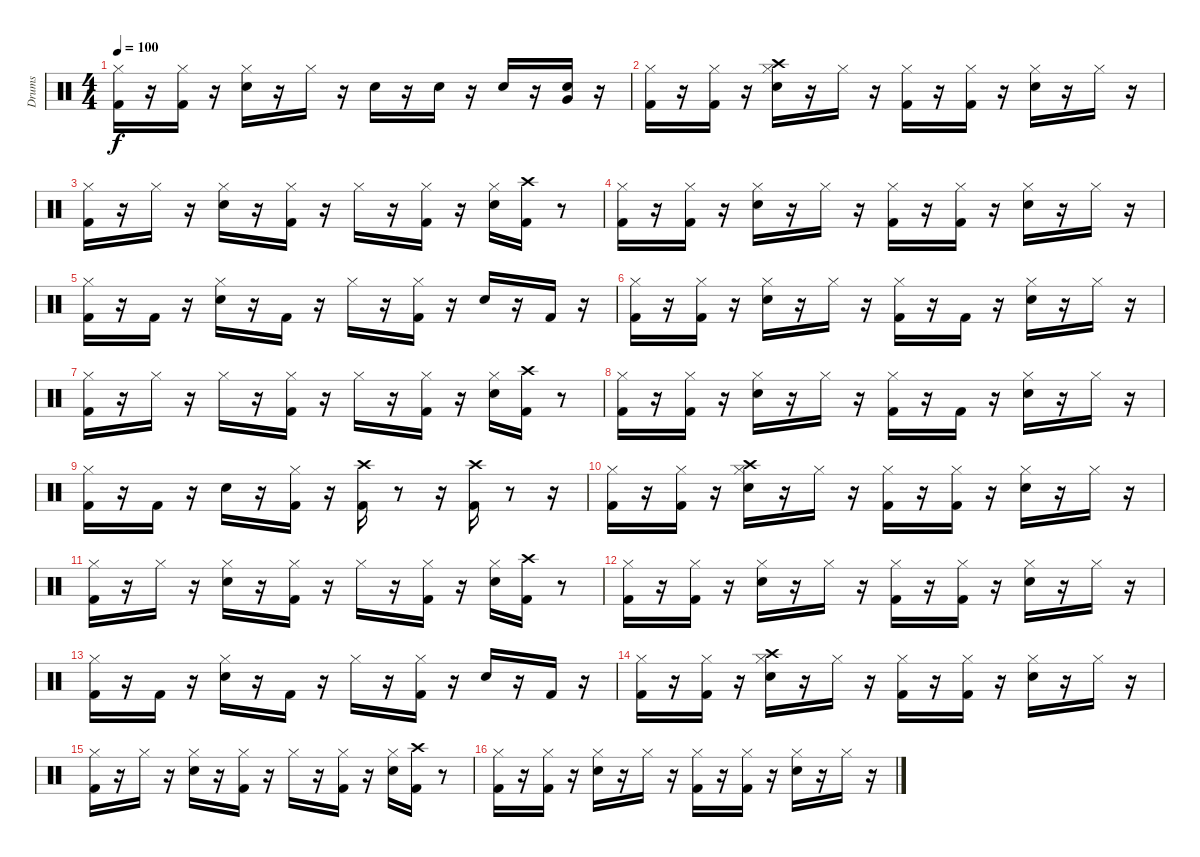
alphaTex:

\track ("Drums" "Drums") {instrument percussion}
\staff {score}
\articulation defaults
\ts (4 4)
\tempo 100
\clef neutral
\ks c
("Kick (hit) 2" "Hi-Hat (closed)").16{dy f} r.16 ("Kick (hit) 2" "Hi-Hat (closed)").16 r.16 ("Snare (hit) 2" "Hi-Hat (closed)").16 r.16 "Hi-Hat (closed)".16 r.16 "Snare (hit) 2".16 r.16 "Snare (hit) 2".16 r.16 "Snare (hit) 2".16 r.16 ("Snare (hit) 2" "Very Low Tom (hit)").16 r.16 |
("Kick (hit) 2" "Hi-Hat (closed)").16 r.16 ("Kick (hit) 2" "Hi-Hat (closed)").16 r.16 ("Snare (hit) 2" "Hi-Hat (closed)" "Crash high (hit)").16 r.16 "Hi-Hat (closed)".16 r.16 ("Kick (hit) 2" "Hi-Hat (closed)").16 r.16 ("Kick (hit) 2" "Hi-Hat (closed)").16 r.16 ("Snare (hit) 2" "Hi-Hat (closed)").16 r.16 "Hi-Hat (closed)".16 r.16 |
("Kick (hit) 2" "Hi-Hat (closed)").16 r.16 "Hi-Hat (closed)".16 r.16 ("Snare (hit) 2" "Hi-Hat (closed)").16 r.16 ("Kick (hit) 2" "Hi-Hat (closed)").16 r.16 "Hi-Hat (closed)".16 r.16 ("Kick (hit) 2" "Hi-Hat (closed)").16 r.16 ("Snare (hit) 2" "Hi-Hat (closed)").16 ("Kick (hit) 2" "Crash high (hit)").16 r.8 |
("Kick (hit) 2" "Hi-Hat (closed)").16 r.16 ("Kick (hit) 2" "Hi-Hat (closed)").16 r.16 ("Snare (hit) 2" "Hi-Hat (closed)").16 r.16 "Hi-Hat (closed)".16 r.16 ("Kick (hit) 2" "Hi-Hat (closed)").16 r.16 ("Kick (hit) 2" "Hi-Hat (closed)").16 r.16 ("Snare (hit) 2" "Hi-Hat (closed)").16 r.16 "Hi-Hat (closed)".16 r.16 |
("Kick (hit) 2" "Hi-Hat (closed)").16 r.16 "Kick (hit) 2".16 r.16 ("Snare (hit) 2" "Hi-Hat (closed)").16 r.16 "Kick (hit) 2".16 r.16 "Hi-Hat (closed)".16 r.16 ("Kick (hit) 2" "Hi-Hat (closed)").16 r.16 "Snare (hit) 2".16 r.16 "Kick (hit) 2".16 r.16 |
("Kick (hit) 2" "Hi-Hat (closed)").16 r.16 ("Kick (hit) 2" "Hi-Hat (closed)").16 r.16 ("Snare (hit) 2" "Hi-Hat (closed)").16 r.16 "Hi-Hat (closed)".16 r.16 ("Kick (hit) 2" "Hi-Hat (closed)").16 r.16 "Kick (hit) 2".16 r.16 ("Snare (hit) 2" "Hi-Hat (closed)").16 r.16 "Hi-Hat (closed)".16 r.16 |
("Kick (hit) 2" "Hi-Hat (closed)").16 r.16 "Hi-Hat (closed)".16 r.16 "Hi-Hat (closed)".16 r.16 ("Kick (hit) 2" "Hi-Hat (closed)").16 r.16 "Hi-Hat (closed)".16 r.16 ("Kick (hit) 2" "Hi-Hat (closed)").16 r.16 ("Snare (hit) 2" "Hi-Hat (closed)").16 ("Kick (hit) 2" "Crash high (hit)").16 r.8 |
("Kick (hit) 2" "Hi-Hat (closed)").16 r.16 ("Kick (hit) 2" "Hi-Hat (closed)").16 r.16 ("Snare (hit) 2" "Hi-Hat (closed)").16 r.16 "Hi-Hat (closed)".16 r.16 ("Kick (hit) 2" "Hi-Hat (closed)").16 r.16 "Kick (hit) 2".16 r.16 ("Snare (hit) 2" "Hi-Hat (closed)").16 r.16 "Hi-Hat (closed)".16 r.16 |
("Kick (hit) 2" "Hi-Hat (closed)").16 r.16 "Kick (hit) 2".16 r.16 "Snare (hit) 2".16 r.16 ("Kick (hit) 2" "Hi-Hat (closed)").16 r.16 ("Kick (hit) 2" "Crash high (hit)").16 r.8 r.16 ("Kick (hit) 2" "Crash high (hit)").16 r.8 r.16 |
("Kick (hit) 2" "Hi-Hat (closed)").16 r.16 ("Kick (hit) 2" "Hi-Hat (closed)").16 r.16 ("Snare (hit) 2" "Hi-Hat (closed)" "Crash high (hit)").16 r.16 "Hi-Hat (closed)".16 r.16 ("Kick (hit) 2" "Hi-Hat (closed)").16 r.16 ("Kick (hit) 2" "Hi-Hat (closed)").16 r.16 ("Snare (hit) 2" "Hi-Hat (closed)").16 r.16 "Hi-Hat (closed)".16 r.16 |
("Kick (hit) 2" "Hi-Hat (closed)").16 r.16 "Hi-Hat (closed)".16 r.16 ("Snare (hit) 2" "Hi-Hat (closed)").16 r.16 ("Kick (hit) 2" "Hi-Hat (closed)").16 r.16 "Hi-Hat (closed)".16 r.16 ("Kick (hit) 2" "Hi-Hat (closed)").16 r.16 ("Snare (hit) 2" "Hi-Hat (closed)").16 ("Kick (hit) 2" "Crash high (hit)").16 r.8 |
("Kick (hit) 2" "Hi-Hat (closed)").16 r.16 ("Kick (hit) 2" "Hi-Hat (closed)").16 r.16 ("Snare (hit) 2" "Hi-Hat (closed)").16 r.16 "Hi-Hat (closed)".16 r.16 ("Kick (hit) 2" "Hi-Hat (closed)").16 r.16 ("Kick (hit) 2" "Hi-Hat (closed)").16 r.16 ("Snare (hit) 2" "Hi-Hat (closed)").16 r.16 "Hi-Hat (closed)".16 r.16 |
("Kick (hit) 2" "Hi-Hat (closed)").16 r.16 "Kick (hit) 2".16 r.16 ("Snare (hit) 2" "Hi-Hat (closed)").16 r.16 "Kick (hit) 2".16 r.16 "Hi-Hat (closed)".16 r.16 ("Kick (hit) 2" "Hi-Hat (closed)").16 r.16 "Snare (hit) 2".16 r.16 "Kick (hit) 2".16 r.16 |
("Kick (hit) 2" "Hi-Hat (closed)").16 r.16 ("Kick (hit) 2" "Hi-Hat (closed)").16 r.16 ("Snare (hit) 2" "Hi-Hat (closed)" "Crash high (hit)").16 r.16 "Hi-Hat (closed)".16 r.16 ("Kick (hit) 2" "Hi-Hat (closed)").16 r.16 ("Kick (hit) 2" "Hi-Hat (closed)").16 r.16 ("Snare (hit) 2" "Hi-Hat (closed)").16 r.16 "Hi-Hat (closed)".16 r.16 |
("Kick (hit) 2" "Hi-Hat (closed)").16 r.16 "Hi-Hat (closed)".16 r.16 ("Snare (hit) 2" "Hi-Hat (closed)").16 r.16 ("Kick (hit) 2" "Hi-Hat (closed)").16 r.16 "Hi-Hat (closed)".16 r.16 ("Kick (hit) 2" "Hi-Hat (closed)").16 r.16 ("Snare (hit) 2" "Hi-Hat (closed)").16 ("Kick (hit) 2" "Crash high (hit)").16 r.8 |
("Kick (hit) 2" "Hi-Hat (closed)").16 r.16 ("Kick (hit) 2" "Hi-Hat (closed)").16 r.16 ("Snare (hit) 2" "Hi-Hat (closed)").16 r.16 "Hi-Hat (closed)".16 r.16 ("Kick (hit) 2" "Hi-Hat (closed)").16 r.16 ("Kick (hit) 2" "Hi-Hat (closed)").16 r.16 ("Snare (hit) 2" "Hi-Hat (closed)").16 r.16 "Hi-Hat (closed)".16 r.16
